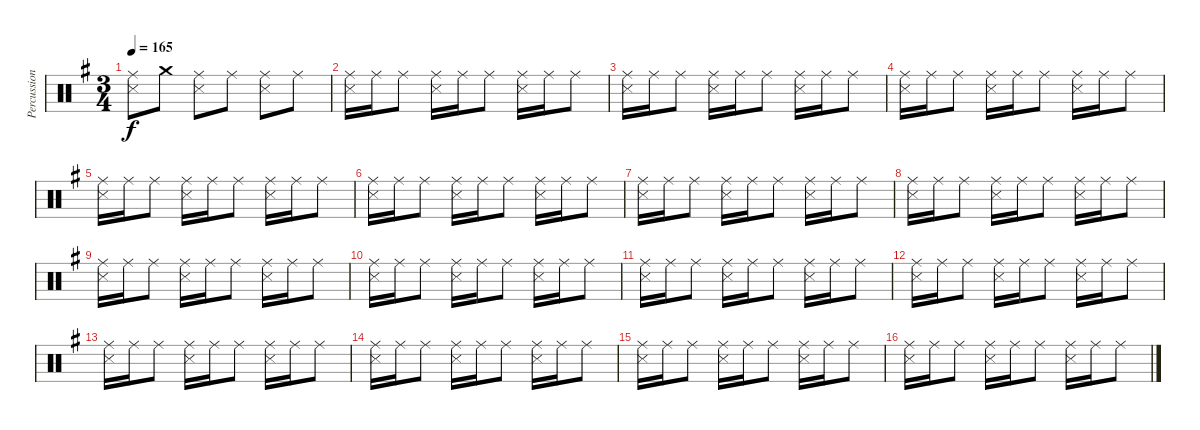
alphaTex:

\track ("Percussion" "Percussion") {instrument percussion}
\staff {score}
\articulation defaults
\ts (3 4)
\tempo 165
\clef neutral
\ks g
("Ride (middle)" "Snare (side stick) 3").8{dy f} "Crash medium (hit)".8 ("Ride (middle)" "Snare (side stick) 3").8 "Ride (middle)".8 ("Ride (middle)" "Snare (side stick) 3").8 "Ride (middle)".8 |
("Ride (middle)" "Snare (side stick) 3").16 "Ride (middle)".16 "Ride (middle)".8 ("Ride (middle)" "Snare (side stick) 3").16 "Ride (middle)".16 "Ride (middle)".8 ("Ride (middle)" "Snare (side stick) 3").16 "Ride (middle)".16 "Ride (middle)".8 |
("Ride (middle)" "Snare (side stick) 3").16 "Ride (middle)".16 "Ride (middle)".8 ("Ride (middle)" "Snare (side stick) 3").16 "Ride (middle)".16 "Ride (middle)".8 ("Ride (middle)" "Snare (side stick) 3").16 "Ride (middle)".16 "Ride (middle)".8 |
("Ride (middle)" "Snare (side stick) 3").16 "Ride (middle)".16 "Ride (middle)".8 ("Ride (middle)" "Snare (side stick) 3").16 "Ride (middle)".16 "Ride (middle)".8 ("Ride (middle)" "Snare (side stick) 3").16 "Ride (middle)".16 "Ride (middle)".8 |
("Ride (middle)" "Snare (side stick) 3").16 "Ride (middle)".16 "Ride (middle)".8 ("Ride (middle)" "Snare (side stick) 3").16 "Ride (middle)".16 "Ride (middle)".8 ("Ride (middle)" "Snare (side stick) 3").16 "Ride (middle)".16 "Ride (middle)".8 |
("Ride (middle)" "Snare (side stick) 3").16 "Ride (middle)".16 "Ride (middle)".8 ("Ride (middle)" "Snare (side stick) 3").16 "Ride (middle)".16 "Ride (middle)".8 ("Ride (middle)" "Snare (side stick) 3").16 "Ride (middle)".16 "Ride (middle)".8 |
("Ride (middle)" "Snare (side stick) 3").16 "Ride (middle)".16 "Ride (middle)".8 ("Ride (middle)" "Snare (side stick) 3").16 "Ride (middle)".16 "Ride (middle)".8 ("Ride (middle)" "Snare (side stick) 3").16 "Ride (middle)".16 "Ride (middle)".8 |
("Ride (middle)" "Snare (side stick) 3").16 "Ride (middle)".16 "Ride (middle)".8 ("Ride (middle)" "Snare (side stick) 3").16 "Ride (middle)".16 "Ride (middle)".8 ("Ride (middle)" "Snare (side stick) 3").16 "Ride (middle)".16 "Ride (middle)".8 |
("Ride (middle)" "Snare (side stick) 3").16 "Ride (middle)".16 "Ride (middle)".8 ("Ride (middle)" "Snare (side stick) 3").16 "Ride (middle)".16 "Ride (middle)".8 ("Ride (middle)" "Snare (side stick) 3").16 "Ride (middle)".16 "Ride (middle)".8 |
("Ride (middle)" "Snare (side stick) 3").16 "Ride (middle)".16 "Ride (middle)".8 ("Ride (middle)" "Snare (side stick) 3").16 "Ride (middle)".16 "Ride (middle)".8 ("Ride (middle)" "Snare (side stick) 3").16 "Ride (middle)".16 "Ride (middle)".8 |
("Ride (middle)" "Snare (side stick) 3").16 "Ride (middle)".16 "Ride (middle)".8 ("Ride (middle)" "Snare (side stick) 3").16 "Ride (middle)".16 "Ride (middle)".8 ("Ride (middle)" "Snare (side stick) 3").16 "Ride (middle)".16 "Ride (middle)".8 |
("Ride (middle)" "Snare (side stick) 3").16 "Ride (middle)".16 "Ride (middle)".8 ("Ride (middle)" "Snare (side stick) 3").16 "Ride (middle)".16 "Ride (middle)".8 ("Ride (middle)" "Snare (side stick) 3").16 "Ride (middle)".16 "Ride (middle)".8 |
("Ride (middle)" "Snare (side stick) 3").16 "Ride (middle)".16 "Ride (middle)".8 ("Ride (middle)" "Snare (side stick) 3").16 "Ride (middle)".16 "Ride (middle)".8 ("Ride (middle)" "Snare (side stick) 3").16 "Ride (middle)".16 "Ride (middle)".8 |
("Ride (middle)" "Snare (side stick) 3").16 "Ride (middle)".16 "Ride (middle)".8 ("Ride (middle)" "Snare (side stick) 3").16 "Ride (middle)".16 "Ride (middle)".8 ("Ride (middle)" "Snare (side stick) 3").16 "Ride (middle)".16 "Ride (middle)".8 |
("Ride (middle)" "Snare (side stick) 3").16 "Ride (middle)".16 "Ride (middle)".8 ("Ride (middle)" "Snare (side stick) 3").16 "Ride (middle)".16 "Ride (middle)".8 ("Ride (middle)" "Snare (side stick) 3").16 "Ride (middle)".16 "Ride (middle)".8 |
("Ride (middle)" "Snare (side stick) 3").16 "Ride (middle)".16 "Ride (middle)".8 ("Ride (middle)" "Snare (side stick) 3").16 "Ride (middle)".16 "Ride (middle)".8 ("Ride (middle)" "Snare (side stick) 3").16 "Ride (middle)".16 "Ride (middle)".8
